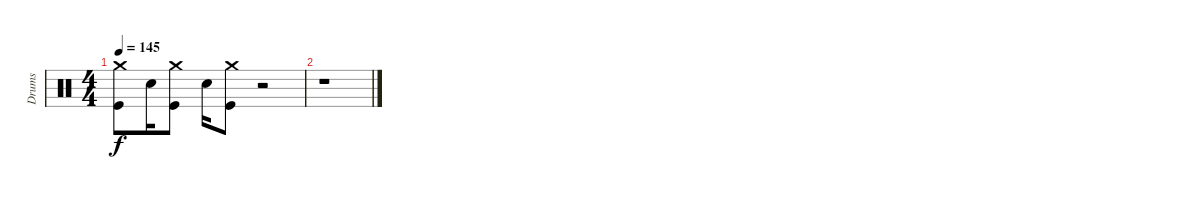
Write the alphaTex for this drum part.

\track ("Drums" "Drums") {instrument percussion}
\staff {score}
\articulation defaults
\ts (4 4)
\tempo 145
\clef neutral
\ks c
("Crash medium (hit)" "Kick (hit)").8{dy f} "Electric Snare (hit)".16 ("Crash medium (hit)" "Kick (hit)").8 "Electric Snare (hit)".16 ("Crash medium (hit)" "Kick (hit)").8 r.2 |
r.1
